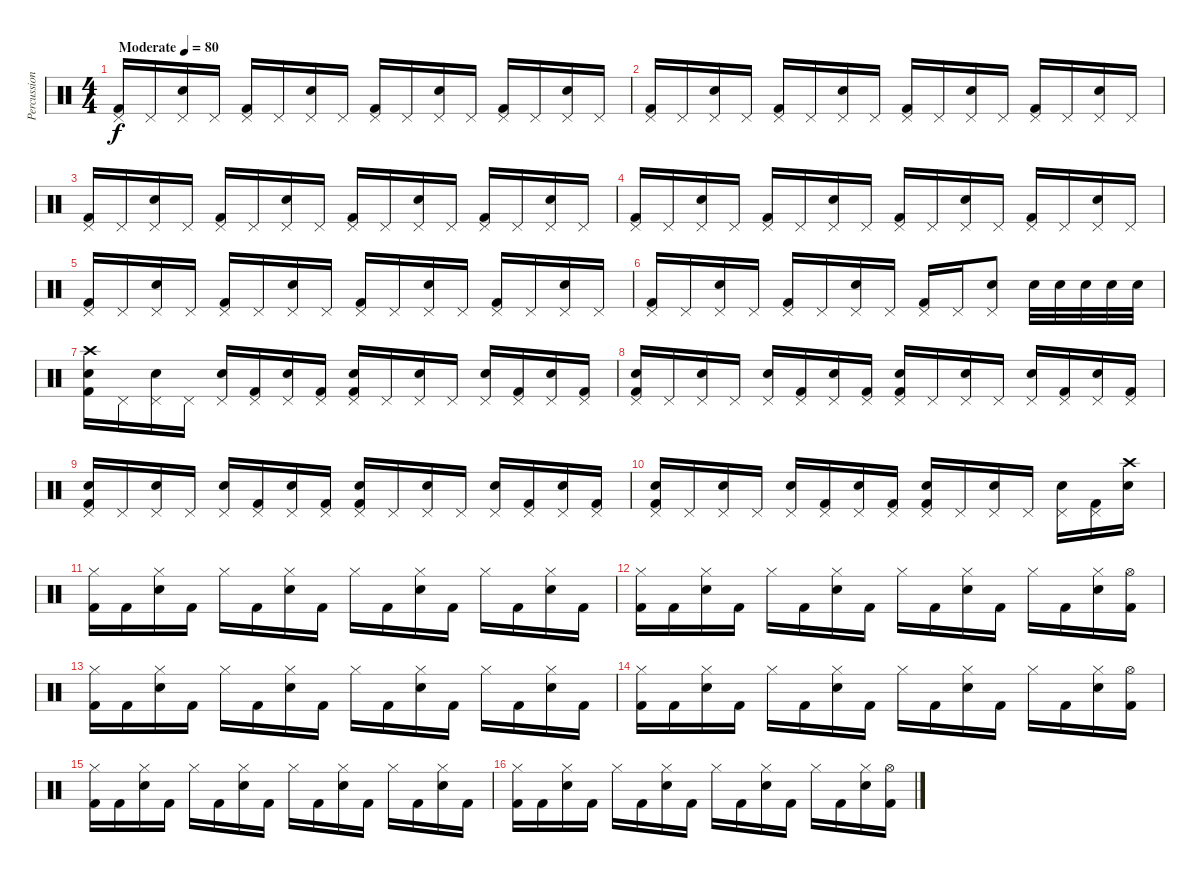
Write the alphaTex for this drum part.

\track ("Percussion" "Percussion") {instrument percussion}
\staff {score}
\articulation defaults
\ts (4 4)
\tempo (80 "Moderate")
\clef neutral
\ks c
("Pedal Hi-Hat (hit)" "Kick (hit) 2").16{dy f} "Pedal Hi-Hat (hit)".16 ("Pedal Hi-Hat (hit)" "Electric Snare (hit)").16 "Pedal Hi-Hat (hit)".16 ("Pedal Hi-Hat (hit)" "Kick (hit) 2").16 "Pedal Hi-Hat (hit)".16 ("Pedal Hi-Hat (hit)" "Electric Snare (hit)").16 "Pedal Hi-Hat (hit)".16 ("Pedal Hi-Hat (hit)" "Kick (hit) 2").16 "Pedal Hi-Hat (hit)".16 ("Pedal Hi-Hat (hit)" "Electric Snare (hit)").16 "Pedal Hi-Hat (hit)".16 ("Pedal Hi-Hat (hit)" "Kick (hit) 2").16 "Pedal Hi-Hat (hit)".16 ("Pedal Hi-Hat (hit)" "Electric Snare (hit)").16 "Pedal Hi-Hat (hit)".16 |
("Pedal Hi-Hat (hit)" "Kick (hit) 2").16 "Pedal Hi-Hat (hit)".16 ("Pedal Hi-Hat (hit)" "Electric Snare (hit)").16 "Pedal Hi-Hat (hit)".16 ("Pedal Hi-Hat (hit)" "Kick (hit) 2").16 "Pedal Hi-Hat (hit)".16 ("Pedal Hi-Hat (hit)" "Electric Snare (hit)").16 "Pedal Hi-Hat (hit)".16 ("Pedal Hi-Hat (hit)" "Kick (hit) 2").16 "Pedal Hi-Hat (hit)".16 ("Pedal Hi-Hat (hit)" "Electric Snare (hit)").16 "Pedal Hi-Hat (hit)".16 ("Pedal Hi-Hat (hit)" "Kick (hit) 2").16 "Pedal Hi-Hat (hit)".16 ("Pedal Hi-Hat (hit)" "Electric Snare (hit)").16 "Pedal Hi-Hat (hit)".16 |
("Pedal Hi-Hat (hit)" "Kick (hit) 2").16 "Pedal Hi-Hat (hit)".16 ("Pedal Hi-Hat (hit)" "Electric Snare (hit)").16 "Pedal Hi-Hat (hit)".16 ("Pedal Hi-Hat (hit)" "Kick (hit) 2").16 "Pedal Hi-Hat (hit)".16 ("Pedal Hi-Hat (hit)" "Electric Snare (hit)").16 "Pedal Hi-Hat (hit)".16 ("Pedal Hi-Hat (hit)" "Kick (hit) 2").16 "Pedal Hi-Hat (hit)".16 ("Pedal Hi-Hat (hit)" "Electric Snare (hit)").16 "Pedal Hi-Hat (hit)".16 ("Pedal Hi-Hat (hit)" "Kick (hit) 2").16 "Pedal Hi-Hat (hit)".16 ("Pedal Hi-Hat (hit)" "Electric Snare (hit)").16 "Pedal Hi-Hat (hit)".16 |
("Pedal Hi-Hat (hit)" "Kick (hit) 2").16 "Pedal Hi-Hat (hit)".16 ("Pedal Hi-Hat (hit)" "Electric Snare (hit)").16 "Pedal Hi-Hat (hit)".16 ("Pedal Hi-Hat (hit)" "Kick (hit) 2").16 "Pedal Hi-Hat (hit)".16 ("Pedal Hi-Hat (hit)" "Electric Snare (hit)").16 "Pedal Hi-Hat (hit)".16 ("Pedal Hi-Hat (hit)" "Kick (hit) 2").16 "Pedal Hi-Hat (hit)".16 ("Pedal Hi-Hat (hit)" "Electric Snare (hit)").16 "Pedal Hi-Hat (hit)".16 ("Pedal Hi-Hat (hit)" "Kick (hit) 2").16 "Pedal Hi-Hat (hit)".16 ("Pedal Hi-Hat (hit)" "Electric Snare (hit)").16 "Pedal Hi-Hat (hit)".16 |
("Pedal Hi-Hat (hit)" "Kick (hit) 2").16 "Pedal Hi-Hat (hit)".16 ("Pedal Hi-Hat (hit)" "Electric Snare (hit)").16 "Pedal Hi-Hat (hit)".16 ("Pedal Hi-Hat (hit)" "Kick (hit) 2").16 "Pedal Hi-Hat (hit)".16 ("Pedal Hi-Hat (hit)" "Electric Snare (hit)").16 "Pedal Hi-Hat (hit)".16 ("Pedal Hi-Hat (hit)" "Kick (hit) 2").16 "Pedal Hi-Hat (hit)".16 ("Pedal Hi-Hat (hit)" "Electric Snare (hit)").16 "Pedal Hi-Hat (hit)".16 ("Pedal Hi-Hat (hit)" "Kick (hit) 2").16 "Pedal Hi-Hat (hit)".16 ("Pedal Hi-Hat (hit)" "Electric Snare (hit)").16 "Pedal Hi-Hat (hit)".16 |
("Pedal Hi-Hat (hit)" "Kick (hit) 2").16 "Pedal Hi-Hat (hit)".16 ("Pedal Hi-Hat (hit)" "Electric Snare (hit)").16 "Pedal Hi-Hat (hit)".16 ("Pedal Hi-Hat (hit)" "Kick (hit) 2").16 "Pedal Hi-Hat (hit)".16 ("Pedal Hi-Hat (hit)" "Electric Snare (hit)").16 "Pedal Hi-Hat (hit)".16 ("Pedal Hi-Hat (hit)" "Kick (hit) 2").16 "Pedal Hi-Hat (hit)".16 ("Pedal Hi-Hat (hit)" "Electric Snare (hit)").8 "Electric Snare (hit)".32 "Electric Snare (hit)".32 "Electric Snare (hit)".32 "Electric Snare (hit)".32 "Electric Snare (hit)".32 |
("Crash high (hit)" "Electric Snare (hit)" "Kick (hit) 2").16 "Pedal Hi-Hat (hit)".16 ("Pedal Hi-Hat (hit)" "Electric Snare (hit)").16 "Pedal Hi-Hat (hit)".16 ("Pedal Hi-Hat (hit)" "Electric Snare (hit)").16 ("Pedal Hi-Hat (hit)" "Kick (hit) 2").16 ("Pedal Hi-Hat (hit)" "Electric Snare (hit)").16 ("Pedal Hi-Hat (hit)" "Kick (hit) 2").16 ("Pedal Hi-Hat (hit)" "Electric Snare (hit)" "Kick (hit) 2").16 "Pedal Hi-Hat (hit)".16 ("Pedal Hi-Hat (hit)" "Electric Snare (hit)").16 "Pedal Hi-Hat (hit)".16 ("Pedal Hi-Hat (hit)" "Electric Snare (hit)").16 ("Pedal Hi-Hat (hit)" "Kick (hit) 2").16 ("Pedal Hi-Hat (hit)" "Electric Snare (hit)").16 ("Pedal Hi-Hat (hit)" "Kick (hit) 2").16 |
("Pedal Hi-Hat (hit)" "Electric Snare (hit)" "Kick (hit) 2").16 "Pedal Hi-Hat (hit)".16 ("Pedal Hi-Hat (hit)" "Electric Snare (hit)").16 "Pedal Hi-Hat (hit)".16 ("Pedal Hi-Hat (hit)" "Electric Snare (hit)").16 ("Pedal Hi-Hat (hit)" "Kick (hit) 2").16 ("Pedal Hi-Hat (hit)" "Electric Snare (hit)").16 ("Pedal Hi-Hat (hit)" "Kick (hit) 2").16 ("Pedal Hi-Hat (hit)" "Electric Snare (hit)" "Kick (hit) 2").16 "Pedal Hi-Hat (hit)".16 ("Pedal Hi-Hat (hit)" "Electric Snare (hit)").16 "Pedal Hi-Hat (hit)".16 ("Pedal Hi-Hat (hit)" "Electric Snare (hit)").16 ("Pedal Hi-Hat (hit)" "Kick (hit) 2").16 ("Pedal Hi-Hat (hit)" "Electric Snare (hit)").16 ("Pedal Hi-Hat (hit)" "Kick (hit) 2").16 |
("Pedal Hi-Hat (hit)" "Electric Snare (hit)" "Kick (hit) 2").16 "Pedal Hi-Hat (hit)".16 ("Pedal Hi-Hat (hit)" "Electric Snare (hit)").16 "Pedal Hi-Hat (hit)".16 ("Pedal Hi-Hat (hit)" "Electric Snare (hit)").16 ("Pedal Hi-Hat (hit)" "Kick (hit) 2").16 ("Pedal Hi-Hat (hit)" "Electric Snare (hit)").16 ("Pedal Hi-Hat (hit)" "Kick (hit) 2").16 ("Pedal Hi-Hat (hit)" "Electric Snare (hit)" "Kick (hit) 2").16 "Pedal Hi-Hat (hit)".16 ("Pedal Hi-Hat (hit)" "Electric Snare (hit)").16 "Pedal Hi-Hat (hit)".16 ("Pedal Hi-Hat (hit)" "Electric Snare (hit)").16 ("Pedal Hi-Hat (hit)" "Kick (hit) 2").16 ("Pedal Hi-Hat (hit)" "Electric Snare (hit)").16 ("Pedal Hi-Hat (hit)" "Kick (hit) 2").16 |
("Pedal Hi-Hat (hit)" "Electric Snare (hit)" "Kick (hit) 2").16 "Pedal Hi-Hat (hit)".16 ("Pedal Hi-Hat (hit)" "Electric Snare (hit)").16 "Pedal Hi-Hat (hit)".16 ("Pedal Hi-Hat (hit)" "Electric Snare (hit)").16 ("Pedal Hi-Hat (hit)" "Kick (hit) 2").16 ("Pedal Hi-Hat (hit)" "Electric Snare (hit)").16 ("Pedal Hi-Hat (hit)" "Kick (hit) 2").16 ("Pedal Hi-Hat (hit)" "Electric Snare (hit)" "Kick (hit) 2").16 "Pedal Hi-Hat (hit)".16 ("Pedal Hi-Hat (hit)" "Electric Snare (hit)").16 "Pedal Hi-Hat (hit)".16 ("Pedal Hi-Hat (hit)" "Electric Snare (hit)").16 ("Pedal Hi-Hat (hit)" "Kick (hit) 2").16 ("Crash high (hit)" "Electric Snare (hit)").16 |
("Hi-Hat (closed)" "Kick (hit) 2").16 "Kick (hit) 2".16 ("Hi-Hat (closed)" "Electric Snare (hit)").16 "Kick (hit) 2".16 "Hi-Hat (closed)".16 "Kick (hit) 2".16 ("Hi-Hat (closed)" "Electric Snare (hit)").16 "Kick (hit) 2".16 "Hi-Hat (closed)".16 "Kick (hit) 2".16 ("Hi-Hat (closed)" "Electric Snare (hit)").16 "Kick (hit) 2".16 "Hi-Hat (closed)".16 "Kick (hit) 2".16 ("Hi-Hat (closed)" "Electric Snare (hit)").16 "Kick (hit) 2".16 |
("Hi-Hat (closed)" "Kick (hit) 2").16 "Kick (hit) 2".16 ("Hi-Hat (closed)" "Electric Snare (hit)").16 "Kick (hit) 2".16 "Hi-Hat (closed)".16 "Kick (hit) 2".16 ("Hi-Hat (closed)" "Electric Snare (hit)").16 "Kick (hit) 2".16 "Hi-Hat (closed)".16 "Kick (hit) 2".16 ("Hi-Hat (closed)" "Electric Snare (hit)").16 "Kick (hit) 2".16 "Hi-Hat (closed)".16 "Kick (hit) 2".16 ("Hi-Hat (closed)" "Electric Snare (hit)").16 ("Hi-Hat (open)" "Kick (hit) 2").16 |
("Hi-Hat (closed)" "Kick (hit) 2").16 "Kick (hit) 2".16 ("Hi-Hat (closed)" "Electric Snare (hit)").16 "Kick (hit) 2".16 "Hi-Hat (closed)".16 "Kick (hit) 2".16 ("Hi-Hat (closed)" "Electric Snare (hit)").16 "Kick (hit) 2".16 "Hi-Hat (closed)".16 "Kick (hit) 2".16 ("Hi-Hat (closed)" "Electric Snare (hit)").16 "Kick (hit) 2".16 "Hi-Hat (closed)".16 "Kick (hit) 2".16 ("Hi-Hat (closed)" "Electric Snare (hit)").16 "Kick (hit) 2".16 |
("Hi-Hat (closed)" "Kick (hit) 2").16 "Kick (hit) 2".16 ("Hi-Hat (closed)" "Electric Snare (hit)").16 "Kick (hit) 2".16 "Hi-Hat (closed)".16 "Kick (hit) 2".16 ("Hi-Hat (closed)" "Electric Snare (hit)").16 "Kick (hit) 2".16 "Hi-Hat (closed)".16 "Kick (hit) 2".16 ("Hi-Hat (closed)" "Electric Snare (hit)").16 "Kick (hit) 2".16 "Hi-Hat (closed)".16 "Kick (hit) 2".16 ("Hi-Hat (closed)" "Electric Snare (hit)").16 ("Hi-Hat (open)" "Kick (hit) 2").16 |
("Hi-Hat (closed)" "Kick (hit) 2").16 "Kick (hit) 2".16 ("Hi-Hat (closed)" "Electric Snare (hit)").16 "Kick (hit) 2".16 "Hi-Hat (closed)".16 "Kick (hit) 2".16 ("Hi-Hat (closed)" "Electric Snare (hit)").16 "Kick (hit) 2".16 "Hi-Hat (closed)".16 "Kick (hit) 2".16 ("Hi-Hat (closed)" "Electric Snare (hit)").16 "Kick (hit) 2".16 "Hi-Hat (closed)".16 "Kick (hit) 2".16 ("Hi-Hat (closed)" "Electric Snare (hit)").16 "Kick (hit) 2".16 |
("Hi-Hat (closed)" "Kick (hit) 2").16 "Kick (hit) 2".16 ("Hi-Hat (closed)" "Electric Snare (hit)").16 "Kick (hit) 2".16 "Hi-Hat (closed)".16 "Kick (hit) 2".16 ("Hi-Hat (closed)" "Electric Snare (hit)").16 "Kick (hit) 2".16 "Hi-Hat (closed)".16 "Kick (hit) 2".16 ("Hi-Hat (closed)" "Electric Snare (hit)").16 "Kick (hit) 2".16 "Hi-Hat (closed)".16 "Kick (hit) 2".16 ("Hi-Hat (closed)" "Electric Snare (hit)").16 ("Hi-Hat (open)" "Kick (hit) 2").16
